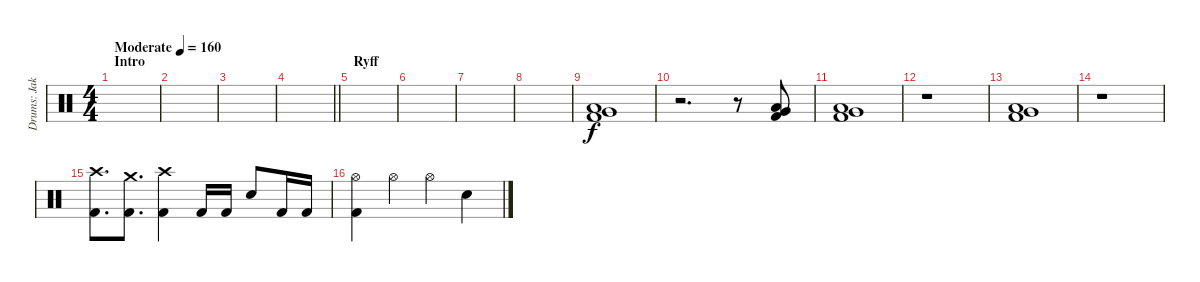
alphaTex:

\track ("Drums: Jake" "Drums: Jak") {instrument percussion}
\staff {score}
\articulation defaults
\ts (4 4)
\section ("" "Intro")
\tempo (160 "Moderate")
\clef neutral
\ks c
|
|
|
\barLineRight lightlight
|
\section ("" "Ryff")
|
|
|
|
("Very Low Tom (hit)" "Low Floor Tom (hit)" "Kick (hit) 2").1 |
r.2{d} r.8 ("Very Low Tom (hit)" "Low Floor Tom (hit)" "Kick (hit) 2").8 |
("Very Low Tom (hit)" "Low Floor Tom (hit)" "Kick (hit) 2").1 |
r.1 |
("Very Low Tom (hit)" "Low Floor Tom (hit)" "Kick (hit) 2").1 |
r.1 |
("Crash high (hit)" "Kick (hit) 2").8{d} ("Crash medium (hit)" "Kick (hit) 2").8{d} ("Crash high (hit)" "Kick (hit) 2").4 "Kick (hit) 2".16 "Kick (hit) 2".16 "Snare (hit) 2".8 "Kick (hit) 2".16 "Kick (hit) 2".16 |
("Hi-Hat (open)" "Kick (hit) 2").4 "Hi-Hat (open)".4 "Hi-Hat (open)".4 "Snare (hit) 2".4
